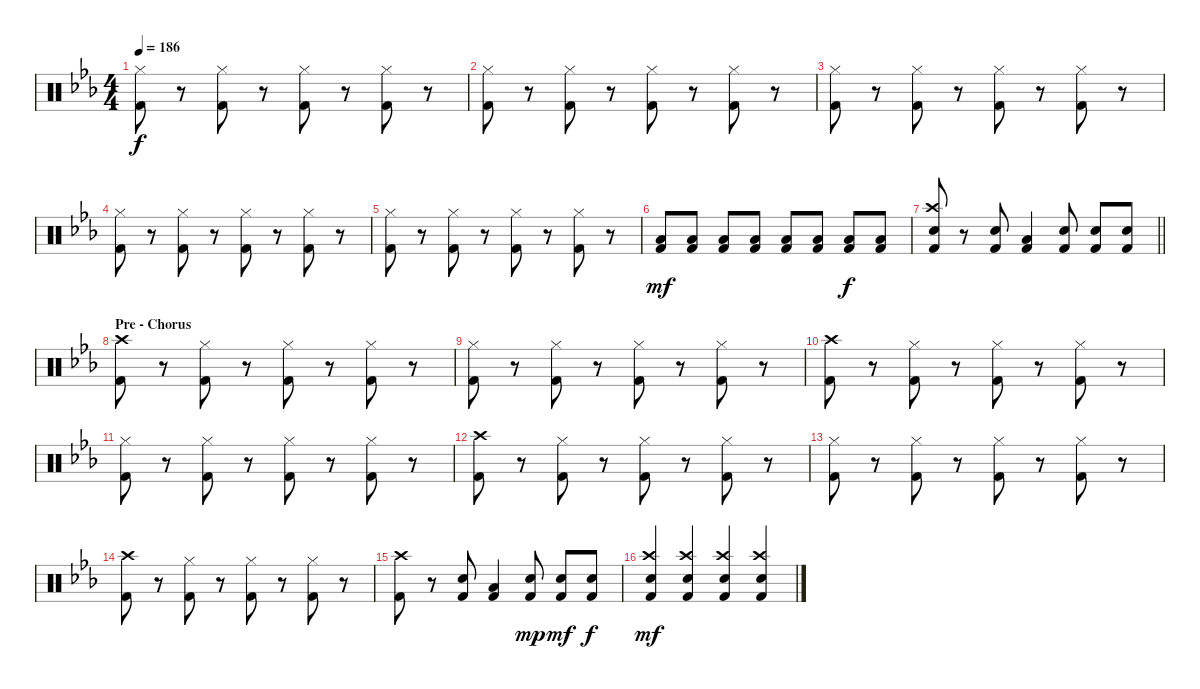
\track "" {instrument percussion}
\staff {score}
\articulation defaults
\ts (4 4)
\tempo 186
\clef neutral
\ks eb
("Hi-Hat (closed)" "Kick (hit) 2").8{dy f} r.8 ("Hi-Hat (closed)" "Kick (hit) 2").8 r.8 ("Hi-Hat (closed)" "Kick (hit) 2").8 r.8 ("Hi-Hat (closed)" "Kick (hit) 2").8 r.8 |
("Hi-Hat (closed)" "Kick (hit) 2").8 r.8 ("Hi-Hat (closed)" "Kick (hit) 2").8 r.8 ("Hi-Hat (closed)" "Kick (hit) 2").8 r.8 ("Hi-Hat (closed)" "Kick (hit) 2").8 r.8 |
("Hi-Hat (closed)" "Kick (hit) 2").8 r.8 ("Hi-Hat (closed)" "Kick (hit) 2").8 r.8 ("Hi-Hat (closed)" "Kick (hit) 2").8 r.8 ("Hi-Hat (closed)" "Kick (hit) 2").8 r.8 |
("Hi-Hat (closed)" "Kick (hit) 2").8 r.8 ("Hi-Hat (closed)" "Kick (hit) 2").8 r.8 ("Hi-Hat (closed)" "Kick (hit) 2").8 r.8 ("Hi-Hat (closed)" "Kick (hit) 2").8 r.8 |
("Hi-Hat (closed)" "Kick (hit) 2").8 r.8 ("Hi-Hat (closed)" "Kick (hit) 2").8 r.8 ("Hi-Hat (closed)" "Kick (hit) 2").8 r.8 ("Hi-Hat (closed)" "Kick (hit) 2").8 r.8 |
("Low Tom (hit)" "Kick (hit) 2").8{dy mf} ("Low Tom (hit)" "Kick (hit) 2").8 ("Low Tom (hit)" "Kick (hit) 2").8 ("Low Tom (hit)" "Kick (hit) 2").8 ("Low Tom (hit)" "Kick (hit) 2").8 ("Low Tom (hit)" "Kick (hit) 2").8 ("Low Tom (hit)" "Kick (hit) 2").8{dy f} ("Low Tom (hit)" "Kick (hit) 2").8 |
\barLineRight lightlight
("Crash high (hit)" "Snare (hit) 2" "Kick (hit) 2").8 r.8 ("Snare (hit) 2" "Kick (hit) 2").8 ("Low Tom (hit)" "Kick (hit) 2").4 ("Snare (hit) 2" "Kick (hit) 2").8 ("Snare (hit) 2" "Kick (hit) 2").8 ("Snare (hit) 2" "Kick (hit) 2").8 |
\section ("" "Pre - Chorus")
("Crash high (hit)" "Kick (hit) 2").8 r.8 ("Hi-Hat (closed)" "Kick (hit) 2").8 r.8 ("Hi-Hat (closed)" "Kick (hit) 2").8 r.8 ("Hi-Hat (closed)" "Kick (hit) 2").8 r.8 |
("Hi-Hat (closed)" "Kick (hit) 2").8 r.8 ("Hi-Hat (closed)" "Kick (hit) 2").8 r.8 ("Hi-Hat (closed)" "Kick (hit) 2").8 r.8 ("Hi-Hat (closed)" "Kick (hit) 2").8 r.8 |
("Crash high (hit)" "Kick (hit) 2").8 r.8 ("Hi-Hat (closed)" "Kick (hit) 2").8 r.8 ("Hi-Hat (closed)" "Kick (hit) 2").8 r.8 ("Hi-Hat (closed)" "Kick (hit) 2").8 r.8 |
("Hi-Hat (closed)" "Kick (hit) 2").8 r.8 ("Hi-Hat (closed)" "Kick (hit) 2").8 r.8 ("Hi-Hat (closed)" "Kick (hit) 2").8 r.8 ("Hi-Hat (closed)" "Kick (hit) 2").8 r.8 |
("Crash high (hit)" "Kick (hit) 2").8 r.8 ("Hi-Hat (closed)" "Kick (hit) 2").8 r.8 ("Hi-Hat (closed)" "Kick (hit) 2").8 r.8 ("Hi-Hat (closed)" "Kick (hit) 2").8 r.8 |
("Hi-Hat (closed)" "Kick (hit) 2").8 r.8 ("Hi-Hat (closed)" "Kick (hit) 2").8 r.8 ("Hi-Hat (closed)" "Kick (hit) 2").8 r.8 ("Hi-Hat (closed)" "Kick (hit) 2").8 r.8 |
("Crash high (hit)" "Kick (hit) 2").8 r.8 ("Hi-Hat (closed)" "Kick (hit) 2").8 r.8 ("Hi-Hat (closed)" "Kick (hit) 2").8 r.8 ("Hi-Hat (closed)" "Kick (hit) 2").8 r.8 |
("Crash high (hit)" "Kick (hit) 2").8 r.8 ("Snare (hit) 2" "Kick (hit) 2").8 ("Low Tom (hit)" "Kick (hit) 2").4 ("Snare (hit) 2" "Kick (hit) 2").8{dy mp} ("Snare (hit) 2" "Kick (hit) 2").8{dy mf} ("Snare (hit) 2" "Kick (hit) 2").8{dy f} |
("Crash high (hit)" "Snare (hit) 2" "Kick (hit) 2").4{dy mf} ("Crash high (hit)" "Snare (hit) 2" "Kick (hit) 2").4 ("Crash high (hit)" "Snare (hit) 2" "Kick (hit) 2").4 ("Crash high (hit)" "Snare (hit) 2" "Kick (hit) 2").4
